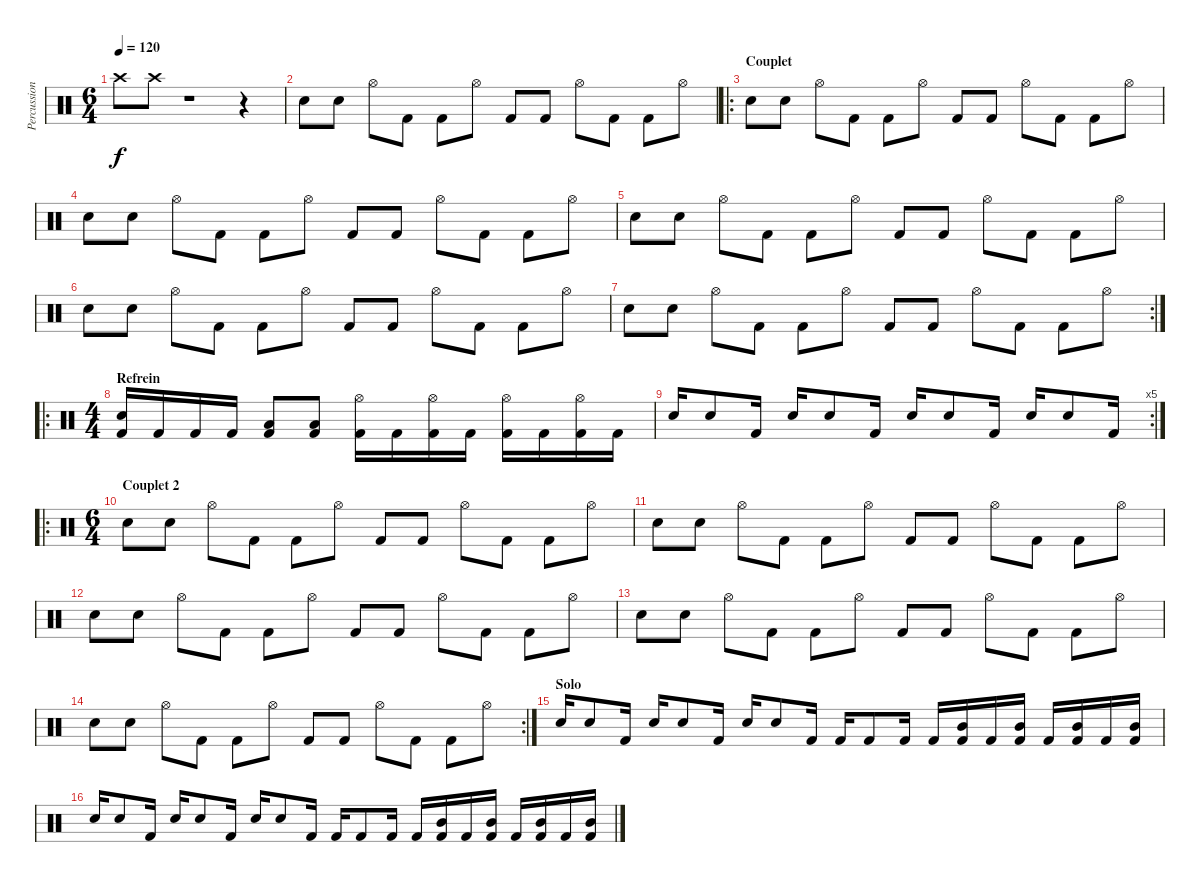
\track ("Percussion" "Percussion") {instrument percussion}
\staff {score}
\articulation defaults
\ts (6 4)
\tempo 120
\clef neutral
\ks c "Crash high (hit)".8{dy f} "Crash high (hit)".8
r.1 r.4 |
"Electric Snare (hit)".8 "Electric Snare (hit)".8 "Hi-Hat (open)".8 "Kick (hit) 2".8 "Kick (hit) 2".8 "Hi-Hat (open)".8 "Kick (hit) 2".8 "Kick (hit) 2".8 "Hi-Hat (open)".8 "Kick (hit) 2".8 "Kick (hit) 2".8 "Hi-Hat (open)".8 |
\ro
\section ("" "Couplet")
"Electric Snare (hit)".8 "Electric Snare (hit)".8 "Hi-Hat (open)".8 "Kick (hit) 2".8 "Kick (hit) 2".8 "Hi-Hat (open)".8 "Kick (hit) 2".8 "Kick (hit) 2".8 "Hi-Hat (open)".8 "Kick (hit) 2".8 "Kick (hit) 2".8 "Hi-Hat (open)".8 |
"Electric Snare (hit)".8 "Electric Snare (hit)".8 "Hi-Hat (open)".8 "Kick (hit) 2".8 "Kick (hit) 2".8 "Hi-Hat (open)".8 "Kick (hit) 2".8 "Kick (hit) 2".8 "Hi-Hat (open)".8 "Kick (hit) 2".8 "Kick (hit) 2".8 "Hi-Hat (open)".8 |
"Electric Snare (hit)".8 "Electric Snare (hit)".8 "Hi-Hat (open)".8 "Kick (hit) 2".8 "Kick (hit) 2".8 "Hi-Hat (open)".8 "Kick (hit) 2".8 "Kick (hit) 2".8 "Hi-Hat (open)".8 "Kick (hit) 2".8 "Kick (hit) 2".8 "Hi-Hat (open)".8 |
"Electric Snare (hit)".8 "Electric Snare (hit)".8 "Hi-Hat (open)".8 "Kick (hit) 2".8 "Kick (hit) 2".8 "Hi-Hat (open)".8 "Kick (hit) 2".8 "Kick (hit) 2".8 "Hi-Hat (open)".8 "Kick (hit) 2".8 "Kick (hit) 2".8 "Hi-Hat (open)".8 |
\rc 2 "Electric Snare (hit)".8 "Electric Snare (hit)".8 "Hi-Hat (open)".8 "Kick (hit) 2".8 "Kick (hit) 2".8 "Hi-Hat (open)".8 "Kick (hit) 2".8 "Kick (hit) 2".8 "Hi-Hat (open)".8 "Kick (hit) 2".8 "Kick (hit) 2".8 "Hi-Hat (open)".8
|
\ro
\ts (4 4)
\section ("" "Refrein")
("Electric Snare (hit)" "Kick (hit) 2").16 "Kick (hit) 2".16 "Kick (hit) 2".16 "Kick (hit) 2".16 ("Low Floor Tom (hit)" "Kick (hit) 2").8 ("Low Floor Tom (hit)" "Kick (hit) 2").8 ("Hi-Hat (open)" "Kick (hit) 2").16 "Kick (hit) 2".16 ("Hi-Hat (open)" "Kick (hit) 2").16 "Kick (hit) 2".16 ("Hi-Hat (open)" "Kick (hit) 2").16 "Kick (hit) 2".16 ("Hi-Hat (open)" "Kick (hit) 2").16 "Kick (hit) 2".16 |
\rc 5 "Electric Snare (hit)".16 "Electric Snare (hit)".8 "Kick (hit) 2".16 "Electric Snare (hit)".16 "Electric Snare (hit)".8 "Kick (hit) 2".16 "Electric Snare (hit)".16 "Electric Snare (hit)".8 "Kick (hit) 2".16 "Electric Snare (hit)".16 "Electric Snare (hit)".8 "Kick (hit) 2".16
|
\ro
\ts (6 4)
\section ("" "Couplet 2")
"Electric Snare (hit)".8 "Electric Snare (hit)".8 "Hi-Hat (open)".8 "Kick (hit) 2".8 "Kick (hit) 2".8 "Hi-Hat (open)".8 "Kick (hit) 2".8 "Kick (hit) 2".8 "Hi-Hat (open)".8 "Kick (hit) 2".8 "Kick (hit) 2".8 "Hi-Hat (open)".8 |
"Electric Snare (hit)".8 "Electric Snare (hit)".8 "Hi-Hat (open)".8 "Kick (hit) 2".8 "Kick (hit) 2".8 "Hi-Hat (open)".8 "Kick (hit) 2".8 "Kick (hit) 2".8 "Hi-Hat (open)".8 "Kick (hit) 2".8 "Kick (hit) 2".8 "Hi-Hat (open)".8 |
"Electric Snare (hit)".8 "Electric Snare (hit)".8 "Hi-Hat (open)".8 "Kick (hit) 2".8 "Kick (hit) 2".8 "Hi-Hat (open)".8 "Kick (hit) 2".8 "Kick (hit) 2".8 "Hi-Hat (open)".8 "Kick (hit) 2".8 "Kick (hit) 2".8 "Hi-Hat (open)".8 |
"Electric Snare (hit)".8 "Electric Snare (hit)".8 "Hi-Hat (open)".8 "Kick (hit) 2".8 "Kick (hit) 2".8 "Hi-Hat (open)".8 "Kick (hit) 2".8 "Kick (hit) 2".8 "Hi-Hat (open)".8 "Kick (hit) 2".8 "Kick (hit) 2".8 "Hi-Hat (open)".8 |
\rc 2 "Electric Snare (hit)".8 "Electric Snare (hit)".8 "Hi-Hat (open)".8 "Kick (hit) 2".8 "Kick (hit) 2".8 "Hi-Hat (open)".8 "Kick (hit) 2".8 "Kick (hit) 2".8 "Hi-Hat (open)".8 "Kick (hit) 2".8 "Kick (hit) 2".8 "Hi-Hat (open)".8
|
\section ("" "Solo")
"Electric Snare (hit)".16 "Electric Snare (hit)".8 "Kick (hit) 2".16 "Electric Snare (hit)".16 "Electric Snare (hit)".8 "Kick (hit) 2".16 "Electric Snare (hit)".16 "Electric Snare (hit)".8 "Kick (hit) 2".16 "Kick (hit) 2".16 "Kick (hit) 2".8 "Kick (hit) 2".16 "Kick (hit) 2".16 ("Mid Tom (hit)" "Kick (hit) 2").16 "Kick (hit) 2".16 ("Mid Tom (hit)" "Kick (hit) 2").16 "Kick (hit) 2".16 ("Mid Tom (hit)" "Kick (hit) 2").16 "Kick (hit) 2".16 ("Mid Tom (hit)" "Kick (hit) 2").16 |
"Electric Snare (hit)".16 "Electric Snare (hit)".8 "Kick (hit) 2".16 "Electric Snare (hit)".16 "Electric Snare (hit)".8 "Kick (hit) 2".16 "Electric Snare (hit)".16 "Electric Snare (hit)".8 "Kick (hit) 2".16 "Kick (hit) 2".16 "Kick (hit) 2".8 "Kick (hit) 2".16 "Kick (hit) 2".16 ("Mid Tom (hit)" "Kick (hit) 2").16 "Kick (hit) 2".16 ("Mid Tom (hit)" "Kick (hit) 2").16 "Kick (hit) 2".16 ("Mid Tom (hit)" "Kick (hit) 2").16 "Kick (hit) 2".16 ("Mid Tom (hit)" "Kick (hit) 2").16
